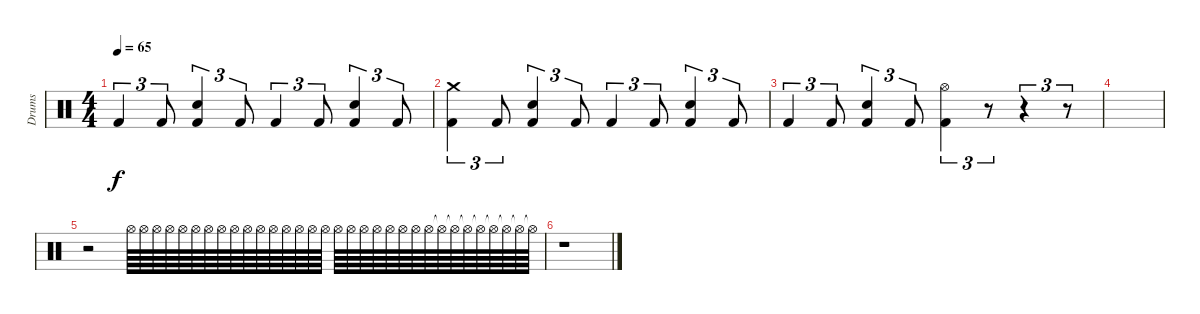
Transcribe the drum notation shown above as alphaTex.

\track ("Drums" "Drums") {instrument percussion}
\staff {score}
\articulation defaults
\ts (4 4)
\tempo 65
\clef neutral
\ks c "Kick (hit) 2".4{tu (3 2) dy f} "Kick (hit) 2".8{tu (3 2)}
("Snare (hit) 2" "Kick (hit) 2").4{tu (3 2)} "Kick (hit) 2".8{tu (3 2)} "Kick (hit) 2".4{tu (3 2)} "Kick (hit) 2".8{tu (3 2)} ("Snare (hit) 2" "Kick (hit) 2").4{tu (3 2)} "Kick (hit) 2".8{tu (3 2)} |
("Crash medium (hit)" "Kick (hit) 2").4{tu (3 2)} "Kick (hit) 2".8{tu (3 2)} ("Snare (hit) 2" "Kick (hit) 2").4{tu (3 2)} "Kick (hit) 2".8{tu (3 2)} "Kick (hit) 2".4{tu (3 2)} "Kick (hit) 2".8{tu (3 2)} ("Snare (hit) 2" "Kick (hit) 2").4{tu (3 2)} "Kick (hit) 2".8{tu (3 2)} |
"Kick (hit) 2".4{tu (3 2)} "Kick (hit) 2".8{tu (3 2)} ("Snare (hit) 2" "Kick (hit) 2").4{tu (3 2)} "Kick (hit) 2".8{tu (3 2)} ("Hi-Hat (open)" "Kick (hit) 2").4{tu (3 2)} r.8{tu (3 2)} r.4{tu (3 2)} r.8{tu (3 2)} |
|
r.2{volume 2} "Hi-Hat (open)".64{volume 10} "Hi-Hat (open)".64 "Hi-Hat (open)".64 "Hi-Hat (open)".64 "Hi-Hat (open)".64 "Hi-Hat (open)".64 "Hi-Hat (open)".64 "Hi-Hat (open)".64 "Hi-Hat (open)".64 "Hi-Hat (open)".64 "Hi-Hat (open)".64 "Hi-Hat (open)".64 "Hi-Hat (open)".64 "Hi-Hat (open)".64 "Hi-Hat (open)".64 "Hi-Hat (open)".64 "Hi-Hat (open)".64 "Hi-Hat (open)".64 "Hi-Hat (open)".64 "Hi-Hat (open)".64 "Hi-Hat (open)".64 "Hi-Hat (open)".64 "Hi-Hat (open)".64 "Hi-Hat (open)".64 "Hi-Hat (open)"{t}.64 "Hi-Hat (open)"{t}.64 "Hi-Hat (open)"{t}.64 "Hi-Hat (open)"{t}.64 "Hi-Hat (open)"{t}.64 "Hi-Hat (open)"{t}.64 "Hi-Hat (open)"{t}.64 "Hi-Hat (open)"{t}.64 |
r.1
